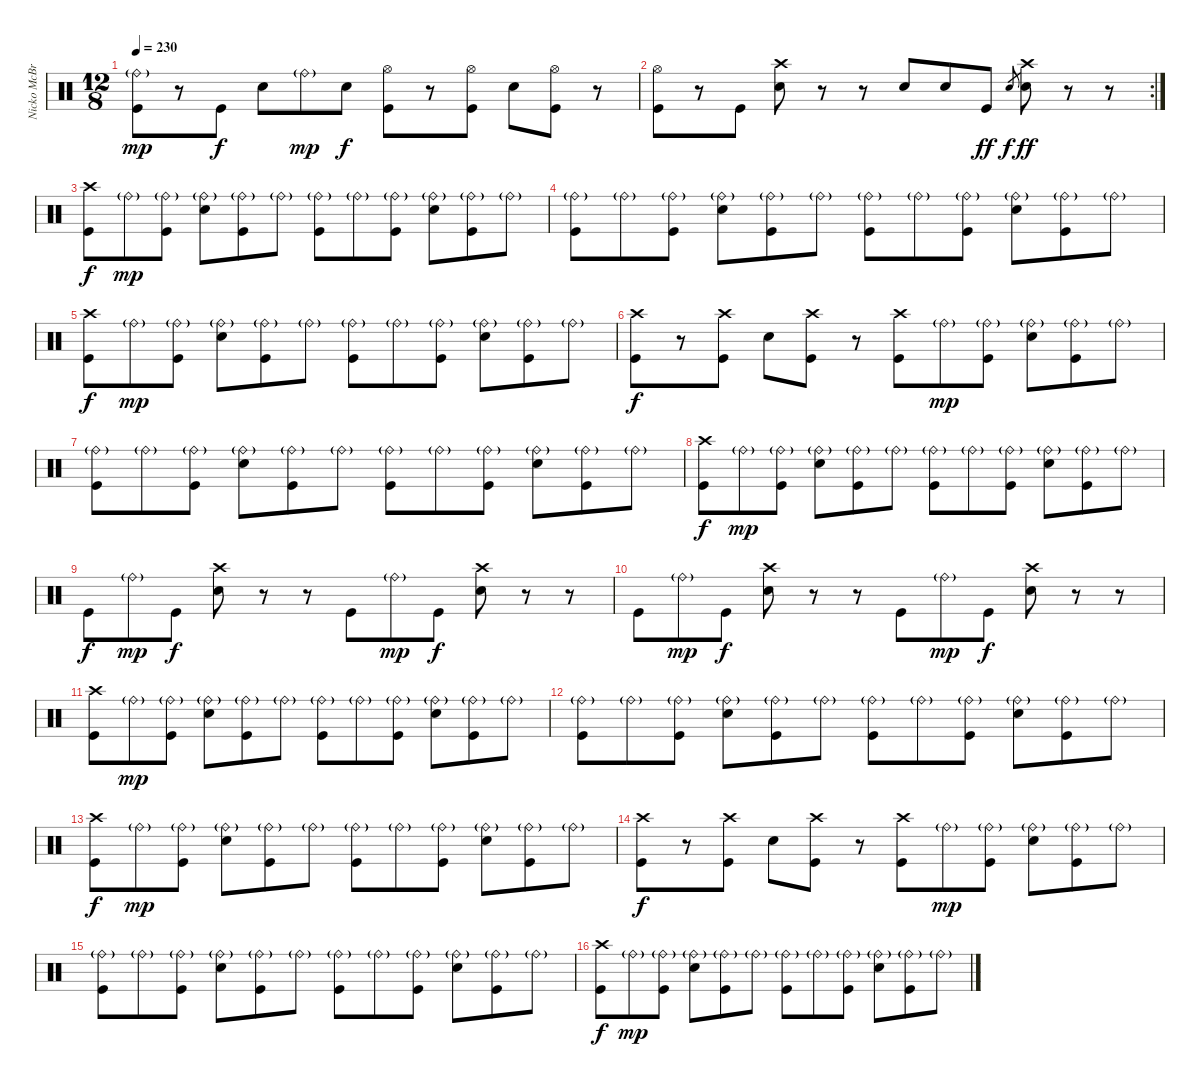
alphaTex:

\track ("Nicko McBrain" "Nicko McBr") {instrument percussion}
\staff {score}
\articulation defaults
\ts (12 8)
\tempo 230
\clef neutral
\ks c
("Ride (bell)"{g} "Kick (hit)").8{dy mp} r.8 "Kick (hit)".8{dy f} "Electric Snare (hit)".8 "Ride (bell)"{g}.8{dy mp} "Electric Snare (hit)".8{dy f} ("Hi-Hat (open)" "Kick (hit)").8 r.8 ("Hi-Hat (open)" "Kick (hit)").8 "Electric Snare (hit)".8 ("Hi-Hat (open)" "Kick (hit)").8 r.8 |
\rc 2
("Hi-Hat (open)" "Kick (hit)").8 r.8 "Kick (hit)".8 ("Crash high (hit)" "Electric Snare (hit)").8 r.8 r.8 "Electric Snare (hit)".8 "Electric Snare (hit)".8 "Kick (hit)".8{dy ff} "Electric Snare (hit)".8{gr dy f} ("Crash high (hit)" "Electric Snare (hit)").8{dy ff} r.8 r.8 |
("Crash high (hit)" "Kick (hit)").8{dy f} "Ride (bell)"{g}.8{dy mp} ("Ride (bell)"{g} "Kick (hit)").8 ("Ride (bell)"{g} "Electric Snare (hit)").8 ("Ride (bell)"{g} "Kick (hit)").8 "Ride (bell)"{g}.8 ("Ride (bell)"{g} "Kick (hit)").8 "Ride (bell)"{g}.8 ("Ride (bell)"{g} "Kick (hit)").8 ("Ride (bell)"{g} "Electric Snare (hit)").8 ("Ride (bell)"{g} "Kick (hit)").8 "Ride (bell)"{g}.8 |
("Ride (bell)"{g} "Kick (hit)").8 "Ride (bell)"{g}.8 ("Ride (bell)"{g} "Kick (hit)").8 ("Ride (bell)"{g} "Electric Snare (hit)").8 ("Ride (bell)"{g} "Kick (hit)").8 "Ride (bell)"{g}.8 ("Ride (bell)"{g} "Kick (hit)").8 "Ride (bell)"{g}.8 ("Ride (bell)"{g} "Kick (hit)").8 ("Ride (bell)"{g} "Electric Snare (hit)").8 ("Ride (bell)"{g} "Kick (hit)").8 "Ride (bell)"{g}.8 |
("Crash high (hit)" "Kick (hit)").8{dy f} "Ride (bell)"{g}.8{dy mp} ("Ride (bell)"{g} "Kick (hit)").8 ("Ride (bell)"{g} "Electric Snare (hit)").8 ("Ride (bell)"{g} "Kick (hit)").8 "Ride (bell)"{g}.8 ("Ride (bell)"{g} "Kick (hit)").8 "Ride (bell)"{g}.8 ("Ride (bell)"{g} "Kick (hit)").8 ("Ride (bell)"{g} "Electric Snare (hit)").8 ("Ride (bell)"{g} "Kick (hit)").8 "Ride (bell)"{g}.8 |
("Crash high (hit)" "Kick (hit)").8{dy f} r.8 ("Crash high (hit)" "Kick (hit)").8 "Electric Snare (hit)".8 ("Crash high (hit)" "Kick (hit)").8 r.8 ("Crash high (hit)" "Kick (hit)").8 "Ride (bell)"{g}.8{dy mp} ("Ride (bell)"{g} "Kick (hit)").8 ("Ride (bell)"{g} "Electric Snare (hit)").8 ("Ride (bell)"{g} "Kick (hit)").8 "Ride (bell)"{g}.8 |
("Ride (bell)"{g} "Kick (hit)").8 "Ride (bell)"{g}.8 ("Ride (bell)"{g} "Kick (hit)").8 ("Ride (bell)"{g} "Electric Snare (hit)").8 ("Ride (bell)"{g} "Kick (hit)").8 "Ride (bell)"{g}.8 ("Ride (bell)"{g} "Kick (hit)").8 "Ride (bell)"{g}.8 ("Ride (bell)"{g} "Kick (hit)").8 ("Ride (bell)"{g} "Electric Snare (hit)").8 ("Ride (bell)"{g} "Kick (hit)").8 "Ride (bell)"{g}.8 |
("Crash high (hit)" "Kick (hit)").8{dy f} "Ride (bell)"{g}.8{dy mp} ("Ride (bell)"{g} "Kick (hit)").8 ("Ride (bell)"{g} "Electric Snare (hit)").8 ("Ride (bell)"{g} "Kick (hit)").8 "Ride (bell)"{g}.8 ("Ride (bell)"{g} "Kick (hit)").8 "Ride (bell)"{g}.8 ("Ride (bell)"{g} "Kick (hit)").8 ("Ride (bell)"{g} "Electric Snare (hit)").8 ("Ride (bell)"{g} "Kick (hit)").8 "Ride (bell)"{g}.8 |
"Kick (hit)".8{dy f} "Ride (bell)"{g}.8{dy mp} "Kick (hit)".8{dy f} ("Crash high (hit)" "Electric Snare (hit)").8 r.8 r.8 "Kick (hit)".8 "Ride (bell)"{g}.8{dy mp} "Kick (hit)".8{dy f} ("Crash high (hit)" "Electric Snare (hit)").8 r.8 r.8 |
"Kick (hit)".8 "Ride (bell)"{g}.8{dy mp} "Kick (hit)".8{dy f} ("Crash high (hit)" "Electric Snare (hit)").8 r.8 r.8 "Kick (hit)".8 "Ride (bell)"{g}.8{dy mp} "Kick (hit)".8{dy f} ("Crash high (hit)" "Electric Snare (hit)").8 r.8 r.8 |
("Crash high (hit)" "Kick (hit)").8 "Ride (bell)"{g}.8{dy mp} ("Ride (bell)"{g} "Kick (hit)").8 ("Ride (bell)"{g} "Electric Snare (hit)").8 ("Ride (bell)"{g} "Kick (hit)").8 "Ride (bell)"{g}.8 ("Ride (bell)"{g} "Kick (hit)").8 "Ride (bell)"{g}.8 ("Ride (bell)"{g} "Kick (hit)").8 ("Ride (bell)"{g} "Electric Snare (hit)").8 ("Ride (bell)"{g} "Kick (hit)").8 "Ride (bell)"{g}.8 |
("Ride (bell)"{g} "Kick (hit)").8 "Ride (bell)"{g}.8 ("Ride (bell)"{g} "Kick (hit)").8 ("Ride (bell)"{g} "Electric Snare (hit)").8 ("Ride (bell)"{g} "Kick (hit)").8 "Ride (bell)"{g}.8 ("Ride (bell)"{g} "Kick (hit)").8 "Ride (bell)"{g}.8 ("Ride (bell)"{g} "Kick (hit)").8 ("Ride (bell)"{g} "Electric Snare (hit)").8 ("Ride (bell)"{g} "Kick (hit)").8 "Ride (bell)"{g}.8 |
("Crash high (hit)" "Kick (hit)").8{dy f} "Ride (bell)"{g}.8{dy mp} ("Ride (bell)"{g} "Kick (hit)").8 ("Ride (bell)"{g} "Electric Snare (hit)").8 ("Ride (bell)"{g} "Kick (hit)").8 "Ride (bell)"{g}.8 ("Ride (bell)"{g} "Kick (hit)").8 "Ride (bell)"{g}.8 ("Ride (bell)"{g} "Kick (hit)").8 ("Ride (bell)"{g} "Electric Snare (hit)").8 ("Ride (bell)"{g} "Kick (hit)").8 "Ride (bell)"{g}.8 |
("Crash high (hit)" "Kick (hit)").8{dy f} r.8 ("Crash high (hit)" "Kick (hit)").8 "Electric Snare (hit)".8 ("Crash high (hit)" "Kick (hit)").8 r.8 ("Crash high (hit)" "Kick (hit)").8 "Ride (bell)"{g}.8{dy mp} ("Ride (bell)"{g} "Kick (hit)").8 ("Ride (bell)"{g} "Electric Snare (hit)").8 ("Ride (bell)"{g} "Kick (hit)").8 "Ride (bell)"{g}.8 |
("Ride (bell)"{g} "Kick (hit)").8 "Ride (bell)"{g}.8 ("Ride (bell)"{g} "Kick (hit)").8 ("Ride (bell)"{g} "Electric Snare (hit)").8 ("Ride (bell)"{g} "Kick (hit)").8 "Ride (bell)"{g}.8 ("Ride (bell)"{g} "Kick (hit)").8 "Ride (bell)"{g}.8 ("Ride (bell)"{g} "Kick (hit)").8 ("Ride (bell)"{g} "Electric Snare (hit)").8 ("Ride (bell)"{g} "Kick (hit)").8 "Ride (bell)"{g}.8 |
("Crash high (hit)" "Kick (hit)").8{dy f} "Ride (bell)"{g}.8{dy mp} ("Ride (bell)"{g} "Kick (hit)").8 ("Ride (bell)"{g} "Electric Snare (hit)").8 ("Ride (bell)"{g} "Kick (hit)").8 "Ride (bell)"{g}.8 ("Ride (bell)"{g} "Kick (hit)").8 "Ride (bell)"{g}.8 ("Ride (bell)"{g} "Kick (hit)").8 ("Ride (bell)"{g} "Electric Snare (hit)").8 ("Ride (bell)"{g} "Kick (hit)").8 "Ride (bell)"{g}.8
